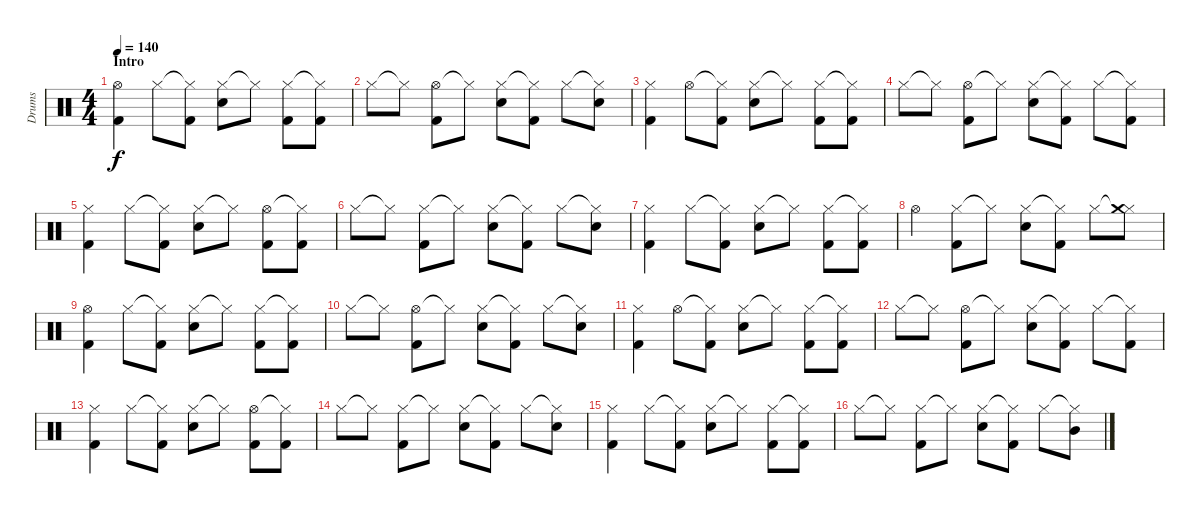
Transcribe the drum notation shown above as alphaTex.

\track ("Drums" "Drums") {instrument percussion}
\staff {score}
\articulation defaults
\ts (4 4)
\section ("" "Intro")
\tempo 140
\clef neutral
\ks c
("Hi-Hat (open)" "Kick (hit) 2").4{dy f} "Hi-Hat (closed)".8 ("Hi-Hat (closed)"{t} "Kick (hit) 2").8 ("Hi-Hat (closed)" "Snare (hit) 2").8 "Hi-Hat (closed)"{t}.8 ("Hi-Hat (closed)" "Kick (hit) 2").8 ("Hi-Hat (closed)"{t} "Kick (hit) 2").8 |
"Hi-Hat (closed)".8 "Hi-Hat (closed)"{t}.8 ("Hi-Hat (open)" "Kick (hit) 2").8 "Hi-Hat (closed)"{t}.8 ("Hi-Hat (closed)" "Snare (hit) 2").8 ("Hi-Hat (closed)"{t} "Kick (hit) 2").8 "Hi-Hat (closed)".8 ("Hi-Hat (closed)"{t} "Snare (hit) 2").8 |
("Hi-Hat (closed)" "Kick (hit) 2").4 "Hi-Hat (open)".8 ("Hi-Hat (closed)"{t} "Kick (hit) 2").8 ("Hi-Hat (closed)" "Snare (hit) 2").8 "Hi-Hat (closed)"{t}.8 ("Hi-Hat (closed)" "Kick (hit) 2").8 ("Hi-Hat (closed)"{t} "Kick (hit) 2").8 |
"Hi-Hat (closed)".8 "Hi-Hat (closed)"{t}.8 ("Hi-Hat (open)" "Kick (hit) 2").8 "Hi-Hat (closed)"{t}.8 ("Hi-Hat (closed)" "Snare (hit) 2").8 ("Hi-Hat (closed)"{t} "Kick (hit) 2").8 "Hi-Hat (closed)".8 ("Hi-Hat (closed)"{t} "Kick (hit) 2").8 |
("Hi-Hat (closed)" "Kick (hit) 2").4 "Hi-Hat (closed)".8 ("Hi-Hat (closed)"{t} "Kick (hit) 2").8 ("Hi-Hat (closed)" "Snare (hit) 2").8 "Hi-Hat (closed)"{t}.8 ("Hi-Hat (open)" "Kick (hit) 2").8 ("Hi-Hat (closed)"{t} "Kick (hit) 2").8 |
"Hi-Hat (closed)".8 "Hi-Hat (closed)"{t}.8 ("Hi-Hat (closed)" "Kick (hit) 2").8 "Hi-Hat (closed)"{t}.8 ("Hi-Hat (closed)" "Snare (hit) 2").8 ("Hi-Hat (closed)"{t} "Kick (hit) 2").8 "Hi-Hat (closed)".8 ("Hi-Hat (closed)"{t} "Snare (hit) 2").8 |
("Hi-Hat (closed)" "Kick (hit) 2").4 "Hi-Hat (closed)".8 ("Hi-Hat (closed)"{t} "Kick (hit) 2").8 ("Hi-Hat (closed)" "Snare (hit) 2").8 "Hi-Hat (closed)"{t}.8 ("Hi-Hat (closed)" "Kick (hit) 2").8 ("Hi-Hat (closed)"{t} "Kick (hit) 2").8 |
"Hi-Hat (open)".4 ("Hi-Hat (closed)" "Kick (hit) 2").8 "Hi-Hat (closed)"{t}.8 ("Hi-Hat (closed)" "Snare (hit) 2").8 ("Hi-Hat (closed)"{t} "Kick (hit) 2").8 "Hi-Hat (closed)".8 ("Hi-Hat (closed)"{t} "Crash medium (hit)").8 |
("Hi-Hat (open)" "Kick (hit) 2").4 "Hi-Hat (closed)".8 ("Hi-Hat (closed)"{t} "Kick (hit) 2").8 ("Hi-Hat (closed)" "Snare (hit) 2").8 "Hi-Hat (closed)"{t}.8 ("Hi-Hat (closed)" "Kick (hit) 2").8 ("Hi-Hat (closed)"{t} "Kick (hit) 2").8 |
"Hi-Hat (closed)".8 "Hi-Hat (closed)"{t}.8 ("Hi-Hat (open)" "Kick (hit) 2").8 "Hi-Hat (closed)"{t}.8 ("Hi-Hat (closed)" "Snare (hit) 2").8 ("Hi-Hat (closed)"{t} "Kick (hit) 2").8 "Hi-Hat (closed)".8 ("Hi-Hat (closed)"{t} "Snare (hit) 2").8 |
("Hi-Hat (closed)" "Kick (hit) 2").4 "Hi-Hat (open)".8 ("Hi-Hat (closed)"{t} "Kick (hit) 2").8 ("Hi-Hat (closed)" "Snare (hit) 2").8 "Hi-Hat (closed)"{t}.8 ("Hi-Hat (closed)" "Kick (hit) 2").8 ("Hi-Hat (closed)"{t} "Kick (hit) 2").8 |
"Hi-Hat (closed)".8 "Hi-Hat (closed)"{t}.8 ("Hi-Hat (open)" "Kick (hit) 2").8 "Hi-Hat (closed)"{t}.8 ("Hi-Hat (closed)" "Snare (hit) 2").8 ("Hi-Hat (closed)"{t} "Kick (hit) 2").8 "Hi-Hat (closed)".8 ("Hi-Hat (closed)"{t} "Kick (hit) 2").8 |
("Hi-Hat (closed)" "Kick (hit) 2").4 "Hi-Hat (closed)".8 ("Hi-Hat (closed)"{t} "Kick (hit) 2").8 ("Hi-Hat (closed)" "Snare (hit) 2").8 "Hi-Hat (closed)"{t}.8 ("Hi-Hat (open)" "Kick (hit) 2").8 ("Hi-Hat (closed)"{t} "Kick (hit) 2").8 |
"Hi-Hat (closed)".8 "Hi-Hat (closed)"{t}.8 ("Hi-Hat (closed)" "Kick (hit) 2").8 "Hi-Hat (closed)"{t}.8 ("Hi-Hat (closed)" "Snare (hit) 2").8 ("Hi-Hat (closed)"{t} "Kick (hit) 2").8 "Hi-Hat (closed)".8 ("Hi-Hat (closed)"{t} "Snare (hit) 2").8 |
("Hi-Hat (closed)" "Kick (hit) 2").4 "Hi-Hat (closed)".8 ("Hi-Hat (closed)"{t} "Kick (hit) 2").8 ("Hi-Hat (closed)" "Snare (hit) 2").8 "Hi-Hat (closed)"{t}.8 ("Hi-Hat (closed)" "Kick (hit) 2").8 ("Hi-Hat (closed)"{t} "Kick (hit) 2").8 |
"Hi-Hat (closed)".8 "Hi-Hat (closed)"{t}.8 ("Hi-Hat (closed)" "Kick (hit) 2").8 "Hi-Hat (closed)"{t}.8 ("Hi-Hat (closed)" "Snare (hit) 2").8 ("Hi-Hat (closed)"{t} "Kick (hit) 2").8 "Hi-Hat (closed)".8 ("Hi-Hat (closed)"{t} "Mid Tom (hit)").8
